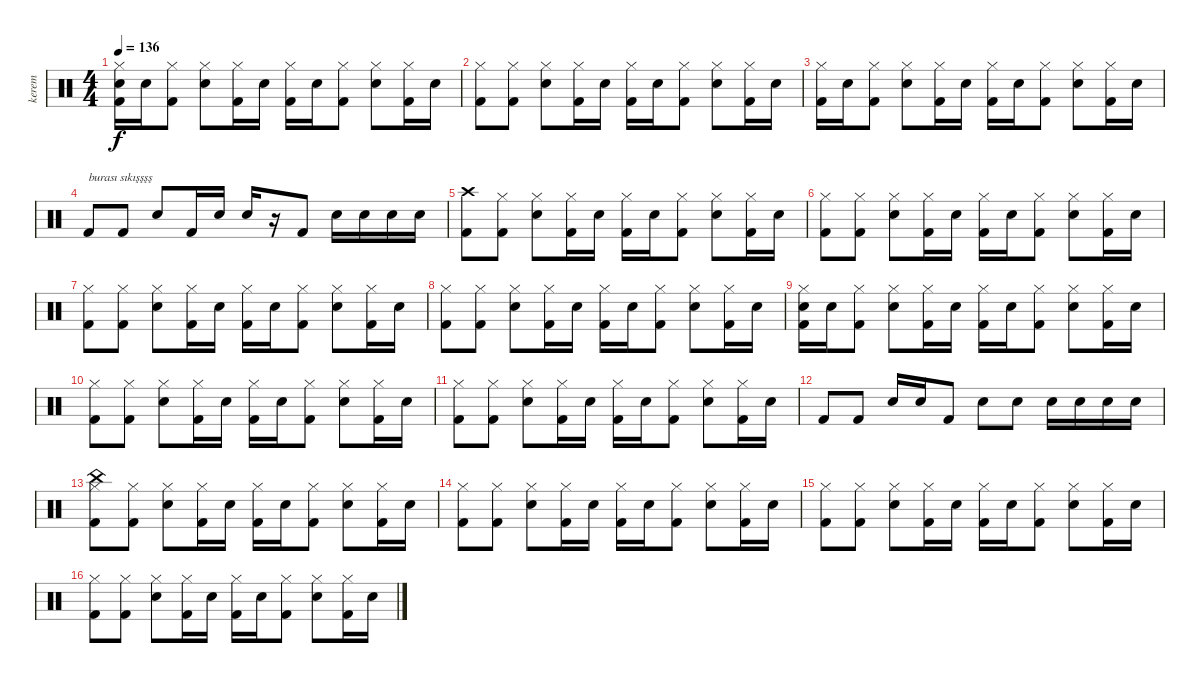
\track ("kerem" "kerem") {instrument percussion}
\staff {score}
\articulation defaults
\ts (4 4)
\tempo 136
\clef neutral
\ks c
("Kick (hit) 2" "Electric Snare (hit)" "Hi-Hat (closed)").16{dy f} "Electric Snare (hit)".16 ("Kick (hit) 2" "Hi-Hat (closed)").8 ("Electric Snare (hit)" "Hi-Hat (closed)").8 ("Kick (hit) 2" "Hi-Hat (closed)").16 "Electric Snare (hit)".16 ("Kick (hit) 2" "Hi-Hat (closed)").16 "Electric Snare (hit)".16 ("Kick (hit) 2" "Hi-Hat (closed)").8 ("Electric Snare (hit)" "Hi-Hat (closed)").8 ("Kick (hit) 2" "Hi-Hat (closed)").16 "Electric Snare (hit)".16 |
("Kick (hit) 2" "Hi-Hat (closed)").8 ("Kick (hit) 2" "Hi-Hat (closed)").8 ("Electric Snare (hit)" "Hi-Hat (closed)").8 ("Kick (hit) 2" "Hi-Hat (closed)").16 "Electric Snare (hit)".16 ("Kick (hit) 2" "Hi-Hat (closed)").16 "Electric Snare (hit)".16 ("Kick (hit) 2" "Hi-Hat (closed)").8 ("Electric Snare (hit)" "Hi-Hat (closed)").8 ("Kick (hit) 2" "Hi-Hat (closed)").16 "Electric Snare (hit)".16 |
("Kick (hit) 2" "Hi-Hat (closed)").16 "Electric Snare (hit)".16 ("Kick (hit) 2" "Hi-Hat (closed)").8 ("Electric Snare (hit)" "Hi-Hat (closed)").8 ("Kick (hit) 2" "Hi-Hat (closed)").16 "Electric Snare (hit)".16 ("Kick (hit) 2" "Hi-Hat (closed)").16 "Electric Snare (hit)".16 ("Kick (hit) 2" "Hi-Hat (closed)").8 ("Electric Snare (hit)" "Hi-Hat (closed)").8 ("Kick (hit) 2" "Hi-Hat (closed)").16 "Electric Snare (hit)".16 |
"Kick (hit) 2".8{txt "burası sıkışşşş"} "Kick (hit) 2".8 "Electric Snare (hit)".8 "Kick (hit) 2".16 "Electric Snare (hit)".16 "Electric Snare (hit)".16 r.16 "Kick (hit) 2".8 "Electric Snare (hit)".16 "Electric Snare (hit)".16 "Electric Snare (hit)".16 "Electric Snare (hit)".16 |
("Kick (hit) 2" "Crash high (hit)").8 ("Kick (hit) 2" "Hi-Hat (closed)").8 ("Electric Snare (hit)" "Hi-Hat (closed)").8 ("Kick (hit) 2" "Hi-Hat (closed)").16 "Electric Snare (hit)".16 ("Kick (hit) 2" "Hi-Hat (closed)").16 "Electric Snare (hit)".16 ("Kick (hit) 2" "Hi-Hat (closed)").8 ("Electric Snare (hit)" "Hi-Hat (closed)").8 ("Kick (hit) 2" "Hi-Hat (closed)").16 "Electric Snare (hit)".16 |
("Kick (hit) 2" "Hi-Hat (closed)").8 ("Kick (hit) 2" "Hi-Hat (closed)").8 ("Electric Snare (hit)" "Hi-Hat (closed)").8 ("Kick (hit) 2" "Hi-Hat (closed)").16 "Electric Snare (hit)".16 ("Kick (hit) 2" "Hi-Hat (closed)").16 "Electric Snare (hit)".16 ("Kick (hit) 2" "Hi-Hat (closed)").8 ("Electric Snare (hit)" "Hi-Hat (closed)").8 ("Kick (hit) 2" "Hi-Hat (closed)").16 "Electric Snare (hit)".16 |
("Kick (hit) 2" "Hi-Hat (closed)").8 ("Kick (hit) 2" "Hi-Hat (closed)").8 ("Electric Snare (hit)" "Hi-Hat (closed)").8 ("Kick (hit) 2" "Hi-Hat (closed)").16 "Electric Snare (hit)".16 ("Kick (hit) 2" "Hi-Hat (closed)").16 "Electric Snare (hit)".16 ("Kick (hit) 2" "Hi-Hat (closed)").8 ("Electric Snare (hit)" "Hi-Hat (closed)").8 ("Kick (hit) 2" "Hi-Hat (closed)").16 "Electric Snare (hit)".16 |
("Kick (hit) 2" "Hi-Hat (closed)").8 ("Kick (hit) 2" "Hi-Hat (closed)").8 ("Electric Snare (hit)" "Hi-Hat (closed)").8 ("Kick (hit) 2" "Hi-Hat (closed)").16 "Electric Snare (hit)".16 ("Kick (hit) 2" "Hi-Hat (closed)").16 "Electric Snare (hit)".16 ("Kick (hit) 2" "Hi-Hat (closed)").8 ("Electric Snare (hit)" "Hi-Hat (closed)").8 ("Kick (hit) 2" "Hi-Hat (closed)").16 "Electric Snare (hit)".16 |
("Kick (hit) 2" "Electric Snare (hit)" "Hi-Hat (closed)").16 "Electric Snare (hit)".16 ("Kick (hit) 2" "Hi-Hat (closed)").8 ("Electric Snare (hit)" "Hi-Hat (closed)").8 ("Kick (hit) 2" "Hi-Hat (closed)").16 "Electric Snare (hit)".16 ("Kick (hit) 2" "Hi-Hat (closed)").16 "Electric Snare (hit)".16 ("Kick (hit) 2" "Hi-Hat (closed)").8 ("Electric Snare (hit)" "Hi-Hat (closed)").8 ("Kick (hit) 2" "Hi-Hat (closed)").16 "Electric Snare (hit)".16 |
("Kick (hit) 2" "Hi-Hat (closed)").8 ("Kick (hit) 2" "Hi-Hat (closed)").8 ("Electric Snare (hit)" "Hi-Hat (closed)").8 ("Kick (hit) 2" "Hi-Hat (closed)").16 "Electric Snare (hit)".16 ("Kick (hit) 2" "Hi-Hat (closed)").16 "Electric Snare (hit)".16 ("Kick (hit) 2" "Hi-Hat (closed)").8 ("Electric Snare (hit)" "Hi-Hat (closed)").8 ("Kick (hit) 2" "Hi-Hat (closed)").16 "Electric Snare (hit)".16 |
("Kick (hit) 2" "Hi-Hat (closed)").8 ("Kick (hit) 2" "Hi-Hat (closed)").8 ("Electric Snare (hit)" "Hi-Hat (closed)").8 ("Kick (hit) 2" "Hi-Hat (closed)").16 "Electric Snare (hit)".16 ("Kick (hit) 2" "Hi-Hat (closed)").16 "Electric Snare (hit)".16 ("Kick (hit) 2" "Hi-Hat (closed)").8 ("Electric Snare (hit)" "Hi-Hat (closed)").8 ("Kick (hit) 2" "Hi-Hat (closed)").16 "Electric Snare (hit)".16 |
"Kick (hit) 2".8 "Kick (hit) 2".8 "Electric Snare (hit)".16 "Electric Snare (hit)".16 "Kick (hit) 2".8 "Electric Snare (hit)".8 "Electric Snare (hit)".8 "Electric Snare (hit)".16 "Electric Snare (hit)".16 "Electric Snare (hit)".16 "Electric Snare (hit)".16 |
("China (hit)" "Kick (hit) 2" "Hi-Hat (closed)").8 ("Kick (hit) 2" "Hi-Hat (closed)").8 ("Electric Snare (hit)" "Hi-Hat (closed)").8 ("Kick (hit) 2" "Hi-Hat (closed)").16 "Electric Snare (hit)".16 ("Kick (hit) 2" "Hi-Hat (closed)").16 "Electric Snare (hit)".16 ("Kick (hit) 2" "Hi-Hat (closed)").8 ("Electric Snare (hit)" "Hi-Hat (closed)").8 ("Kick (hit) 2" "Hi-Hat (closed)").16 "Electric Snare (hit)".16 |
("Kick (hit) 2" "Hi-Hat (closed)").8 ("Kick (hit) 2" "Hi-Hat (closed)").8 ("Electric Snare (hit)" "Hi-Hat (closed)").8 ("Kick (hit) 2" "Hi-Hat (closed)").16 "Electric Snare (hit)".16 ("Kick (hit) 2" "Hi-Hat (closed)").16 "Electric Snare (hit)".16 ("Kick (hit) 2" "Hi-Hat (closed)").8 ("Electric Snare (hit)" "Hi-Hat (closed)").8 ("Kick (hit) 2" "Hi-Hat (closed)").16 "Electric Snare (hit)".16 |
("Kick (hit) 2" "Hi-Hat (closed)").8 ("Kick (hit) 2" "Hi-Hat (closed)").8 ("Electric Snare (hit)" "Hi-Hat (closed)").8 ("Kick (hit) 2" "Hi-Hat (closed)").16 "Electric Snare (hit)".16 ("Kick (hit) 2" "Hi-Hat (closed)").16 "Electric Snare (hit)".16 ("Kick (hit) 2" "Hi-Hat (closed)").8 ("Electric Snare (hit)" "Hi-Hat (closed)").8 ("Kick (hit) 2" "Hi-Hat (closed)").16 "Electric Snare (hit)".16 |
("Kick (hit) 2" "Hi-Hat (closed)").8 ("Kick (hit) 2" "Hi-Hat (closed)").8 ("Electric Snare (hit)" "Hi-Hat (closed)").8 ("Kick (hit) 2" "Hi-Hat (closed)").16 "Electric Snare (hit)".16 ("Kick (hit) 2" "Hi-Hat (closed)").16 "Electric Snare (hit)".16 ("Kick (hit) 2" "Hi-Hat (closed)").8 ("Electric Snare (hit)" "Hi-Hat (closed)").8 ("Kick (hit) 2" "Hi-Hat (closed)").16 "Electric Snare (hit)".16
